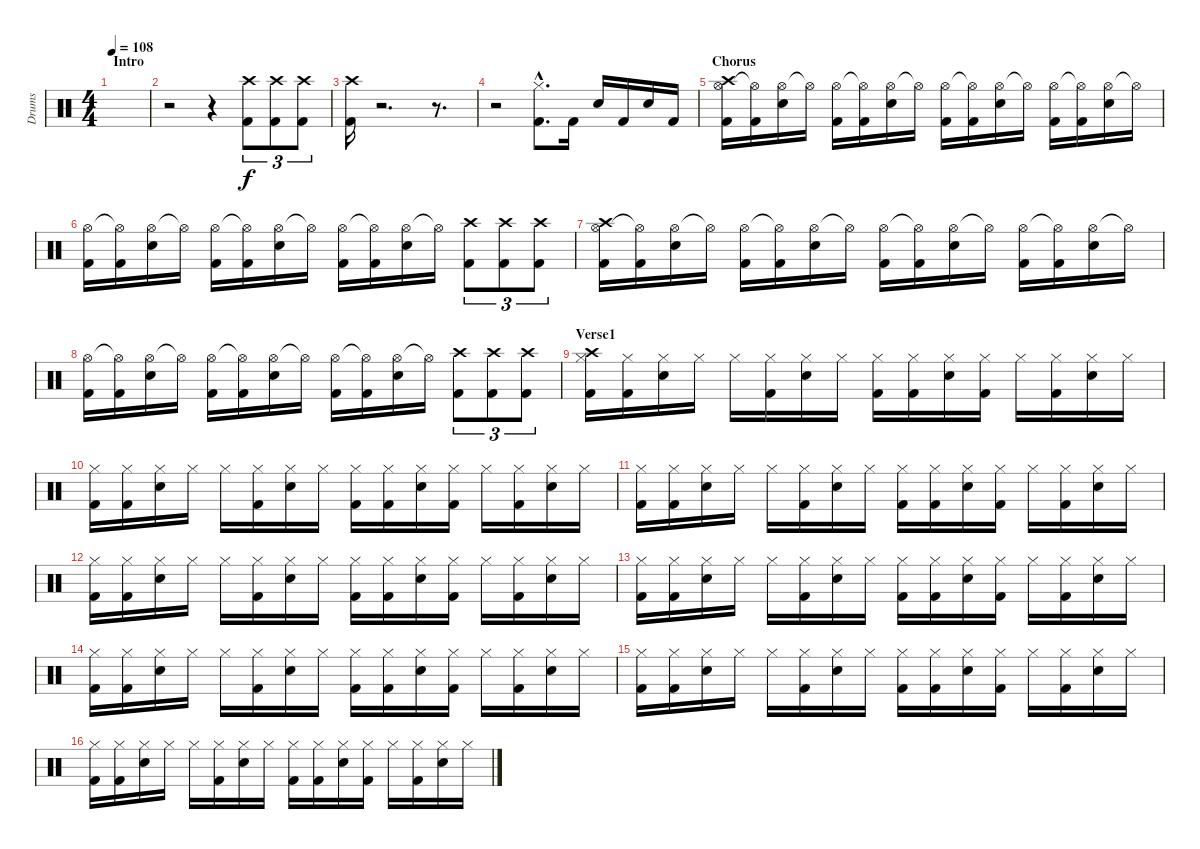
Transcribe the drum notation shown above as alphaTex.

\track ("Drums" "Drums") {instrument percussion}
\staff {score}
\articulation defaults
\ts (4 4)
\section ("" "Intro")
\tempo 108
\clef neutral
\ks c
|
r.2 r.4 ("Kick (hit) 2" "Crash high (hit)").8{tu (3 2)} ("Kick (hit) 2" "Crash high (hit)").8{tu (3 2)} ("Kick (hit) 2" "Crash high (hit)").8{tu (3 2)} |
("Kick (hit) 2" "Crash high (hit)").16 r.2{d} r.8{d} |
r.2 ("Hi-Hat (closed)"{hac} "Kick (hit) 2"{hac}).8{d} "Kick (hit) 2".16 "Electric Snare (hit)".16 "Kick (hit) 2".16 "Electric Snare (hit)".16 "Kick (hit) 2".16 |
\section ("" "Chorus")
("Hi-Hat (open)" "Kick (hit) 2" "Crash high (hit)").16 ("Hi-Hat (open)"{t} "Kick (hit) 2").16 ("Hi-Hat (open)" "Electric Snare (hit)").16 "Hi-Hat (open)"{t}.16 ("Hi-Hat (open)" "Kick (hit) 2").16 ("Hi-Hat (open)"{t} "Kick (hit) 2").16 ("Hi-Hat (open)" "Electric Snare (hit)").16 "Hi-Hat (open)"{t}.16 ("Hi-Hat (open)" "Kick (hit) 2").16 ("Hi-Hat (open)"{t} "Kick (hit) 2").16 ("Hi-Hat (open)" "Electric Snare (hit)").16 "Hi-Hat (open)"{t}.16 ("Hi-Hat (open)" "Kick (hit) 2").16 ("Hi-Hat (open)"{t} "Kick (hit) 2").16 ("Hi-Hat (open)" "Electric Snare (hit)").16 "Hi-Hat (open)"{t}.16 |
("Hi-Hat (open)" "Kick (hit) 2").16 ("Hi-Hat (open)"{t} "Kick (hit) 2").16 ("Hi-Hat (open)" "Electric Snare (hit)").16 "Hi-Hat (open)"{t}.16 ("Hi-Hat (open)" "Kick (hit) 2").16 ("Hi-Hat (open)"{t} "Kick (hit) 2").16 ("Hi-Hat (open)" "Electric Snare (hit)").16 "Hi-Hat (open)"{t}.16 ("Hi-Hat (open)" "Kick (hit) 2").16 ("Hi-Hat (open)"{t} "Kick (hit) 2").16 ("Hi-Hat (open)" "Electric Snare (hit)").16 "Hi-Hat (open)"{t}.16 ("Kick (hit) 2" "Crash high (hit)").8{tu (3 2)} ("Kick (hit) 2" "Crash high (hit)").8{tu (3 2)} ("Kick (hit) 2" "Crash high (hit)").8{tu (3 2)} |
("Hi-Hat (open)" "Kick (hit) 2" "Crash high (hit)").16 ("Hi-Hat (open)"{t} "Kick (hit) 2").16 ("Hi-Hat (open)" "Electric Snare (hit)").16 "Hi-Hat (open)"{t}.16 ("Hi-Hat (open)" "Kick (hit) 2").16 ("Hi-Hat (open)"{t} "Kick (hit) 2").16 ("Hi-Hat (open)" "Electric Snare (hit)").16 "Hi-Hat (open)"{t}.16 ("Hi-Hat (open)" "Kick (hit) 2").16 ("Hi-Hat (open)"{t} "Kick (hit) 2").16 ("Hi-Hat (open)" "Electric Snare (hit)").16 "Hi-Hat (open)"{t}.16 ("Hi-Hat (open)" "Kick (hit) 2").16 ("Hi-Hat (open)"{t} "Kick (hit) 2").16 ("Hi-Hat (open)" "Electric Snare (hit)").16 "Hi-Hat (open)"{t}.16 |
("Hi-Hat (open)" "Kick (hit) 2").16 ("Hi-Hat (open)"{t} "Kick (hit) 2").16 ("Hi-Hat (open)" "Electric Snare (hit)").16 "Hi-Hat (open)"{t}.16 ("Hi-Hat (open)" "Kick (hit) 2").16 ("Hi-Hat (open)"{t} "Kick (hit) 2").16 ("Hi-Hat (open)" "Electric Snare (hit)").16 "Hi-Hat (open)"{t}.16 ("Hi-Hat (open)" "Kick (hit) 2").16 ("Hi-Hat (open)"{t} "Kick (hit) 2").16 ("Hi-Hat (open)" "Electric Snare (hit)").16 "Hi-Hat (open)"{t}.16 ("Kick (hit) 2" "Crash high (hit)").8{tu (3 2)} ("Kick (hit) 2" "Crash high (hit)").8{tu (3 2)} ("Kick (hit) 2" "Crash high (hit)").8{tu (3 2)} |
\section ("" "Verse1")
("Hi-Hat (closed)" "Kick (hit) 2" "Crash high (hit)").16 ("Hi-Hat (closed)" "Kick (hit) 2").16 ("Hi-Hat (closed)" "Electric Snare (hit)").16 "Hi-Hat (closed)".16 "Hi-Hat (closed)".16 ("Hi-Hat (closed)" "Kick (hit) 2").16 ("Hi-Hat (closed)" "Electric Snare (hit)").16 "Hi-Hat (closed)".16 ("Hi-Hat (closed)" "Kick (hit) 2").16 ("Hi-Hat (closed)" "Kick (hit) 2").16 ("Hi-Hat (closed)" "Electric Snare (hit)").16 ("Hi-Hat (closed)" "Kick (hit) 2").16 "Hi-Hat (closed)".16 ("Hi-Hat (closed)" "Kick (hit) 2").16 ("Hi-Hat (closed)" "Electric Snare (hit)").16 "Hi-Hat (closed)".16 |
("Hi-Hat (closed)" "Kick (hit) 2").16 ("Hi-Hat (closed)" "Kick (hit) 2").16 ("Hi-Hat (closed)" "Electric Snare (hit)").16 "Hi-Hat (closed)".16 "Hi-Hat (closed)".16 ("Hi-Hat (closed)" "Kick (hit) 2").16 ("Hi-Hat (closed)" "Electric Snare (hit)").16 "Hi-Hat (closed)".16 ("Hi-Hat (closed)" "Kick (hit) 2").16 ("Hi-Hat (closed)" "Kick (hit) 2").16 ("Hi-Hat (closed)" "Electric Snare (hit)").16 ("Hi-Hat (closed)" "Kick (hit) 2").16 "Hi-Hat (closed)".16 ("Hi-Hat (closed)" "Kick (hit) 2").16 ("Hi-Hat (closed)" "Electric Snare (hit)").16 "Hi-Hat (closed)".16 |
("Hi-Hat (closed)" "Kick (hit) 2").16 ("Hi-Hat (closed)" "Kick (hit) 2").16 ("Hi-Hat (closed)" "Electric Snare (hit)").16 "Hi-Hat (closed)".16 "Hi-Hat (closed)".16 ("Hi-Hat (closed)" "Kick (hit) 2").16 ("Hi-Hat (closed)" "Electric Snare (hit)").16 "Hi-Hat (closed)".16 ("Hi-Hat (closed)" "Kick (hit) 2").16 ("Hi-Hat (closed)" "Kick (hit) 2").16 ("Hi-Hat (closed)" "Electric Snare (hit)").16 ("Hi-Hat (closed)" "Kick (hit) 2").16 "Hi-Hat (closed)".16 ("Hi-Hat (closed)" "Kick (hit) 2").16 ("Hi-Hat (closed)" "Electric Snare (hit)").16 "Hi-Hat (closed)".16 |
("Hi-Hat (closed)" "Kick (hit) 2").16 ("Hi-Hat (closed)" "Kick (hit) 2").16 ("Hi-Hat (closed)" "Electric Snare (hit)").16 "Hi-Hat (closed)".16 "Hi-Hat (closed)".16 ("Hi-Hat (closed)" "Kick (hit) 2").16 ("Hi-Hat (closed)" "Electric Snare (hit)").16 "Hi-Hat (closed)".16 ("Hi-Hat (closed)" "Kick (hit) 2").16 ("Hi-Hat (closed)" "Kick (hit) 2").16 ("Hi-Hat (closed)" "Electric Snare (hit)").16 ("Hi-Hat (closed)" "Kick (hit) 2").16 "Hi-Hat (closed)".16 ("Hi-Hat (closed)" "Kick (hit) 2").16 ("Hi-Hat (closed)" "Electric Snare (hit)").16 "Hi-Hat (closed)".16 |
("Hi-Hat (closed)" "Kick (hit) 2").16 ("Hi-Hat (closed)" "Kick (hit) 2").16 ("Hi-Hat (closed)" "Electric Snare (hit)").16 "Hi-Hat (closed)".16 "Hi-Hat (closed)".16 ("Hi-Hat (closed)" "Kick (hit) 2").16 ("Hi-Hat (closed)" "Electric Snare (hit)").16 "Hi-Hat (closed)".16 ("Hi-Hat (closed)" "Kick (hit) 2").16 ("Hi-Hat (closed)" "Kick (hit) 2").16 ("Hi-Hat (closed)" "Electric Snare (hit)").16 ("Hi-Hat (closed)" "Kick (hit) 2").16 "Hi-Hat (closed)".16 ("Hi-Hat (closed)" "Kick (hit) 2").16 ("Hi-Hat (closed)" "Electric Snare (hit)").16 "Hi-Hat (closed)".16 |
("Hi-Hat (closed)" "Kick (hit) 2").16 ("Hi-Hat (closed)" "Kick (hit) 2").16 ("Hi-Hat (closed)" "Electric Snare (hit)").16 "Hi-Hat (closed)".16 "Hi-Hat (closed)".16 ("Hi-Hat (closed)" "Kick (hit) 2").16 ("Hi-Hat (closed)" "Electric Snare (hit)").16 "Hi-Hat (closed)".16 ("Hi-Hat (closed)" "Kick (hit) 2").16 ("Hi-Hat (closed)" "Kick (hit) 2").16 ("Hi-Hat (closed)" "Electric Snare (hit)").16 ("Hi-Hat (closed)" "Kick (hit) 2").16 "Hi-Hat (closed)".16 ("Hi-Hat (closed)" "Kick (hit) 2").16 ("Hi-Hat (closed)" "Electric Snare (hit)").16 "Hi-Hat (closed)".16 |
("Hi-Hat (closed)" "Kick (hit) 2").16 ("Hi-Hat (closed)" "Kick (hit) 2").16 ("Hi-Hat (closed)" "Electric Snare (hit)").16 "Hi-Hat (closed)".16 "Hi-Hat (closed)".16 ("Hi-Hat (closed)" "Kick (hit) 2").16 ("Hi-Hat (closed)" "Electric Snare (hit)").16 "Hi-Hat (closed)".16 ("Hi-Hat (closed)" "Kick (hit) 2").16 ("Hi-Hat (closed)" "Kick (hit) 2").16 ("Hi-Hat (closed)" "Electric Snare (hit)").16 ("Hi-Hat (closed)" "Kick (hit) 2").16 "Hi-Hat (closed)".16 ("Hi-Hat (closed)" "Kick (hit) 2").16 ("Hi-Hat (closed)" "Electric Snare (hit)").16 "Hi-Hat (closed)".16 |
("Hi-Hat (closed)" "Kick (hit) 2").16 ("Hi-Hat (closed)" "Kick (hit) 2").16 ("Hi-Hat (closed)" "Electric Snare (hit)").16 "Hi-Hat (closed)".16 "Hi-Hat (closed)".16 ("Hi-Hat (closed)" "Kick (hit) 2").16 ("Hi-Hat (closed)" "Electric Snare (hit)").16 "Hi-Hat (closed)".16 ("Hi-Hat (closed)" "Kick (hit) 2").16 ("Hi-Hat (closed)" "Kick (hit) 2").16 ("Hi-Hat (closed)" "Electric Snare (hit)").16 ("Hi-Hat (closed)" "Kick (hit) 2").16 "Hi-Hat (closed)".16 ("Hi-Hat (closed)" "Kick (hit) 2").16 ("Hi-Hat (closed)" "Electric Snare (hit)").16 "Hi-Hat (closed)".16
